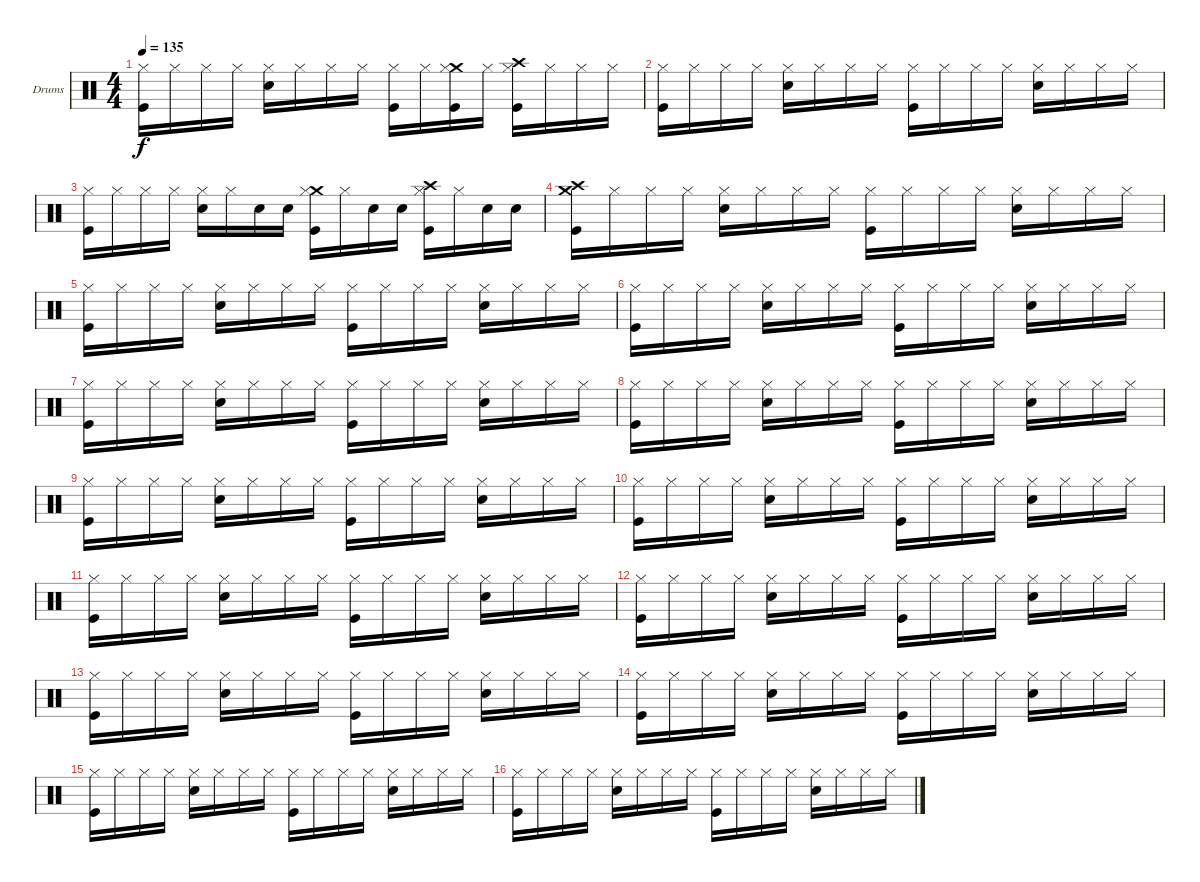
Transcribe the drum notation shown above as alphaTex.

\bracketExtendMode groupsimilarinstruments
\firstSystemTrackNameOrientation horizontal
\otherSystemsTrackNameOrientation horizontal
\track ("Ударные" "Drums") {instrument percussion}
\staff {score}
\articulation defaults
\ts (4 4)
\tempo 135
\clef neutral
\ks c
("Hi-Hat (closed)" "Kick (hit)").16{dy f} "Hi-Hat (closed)".16 "Hi-Hat (closed)".16 "Hi-Hat (closed)".16 ("Hi-Hat (closed)" "Snare (hit) 2").16 "Hi-Hat (closed)".16 "Hi-Hat (closed)".16 "Hi-Hat (closed)".16 ("Hi-Hat (closed)" "Kick (hit)").16 "Hi-Hat (closed)".16 ("Crash medium (hit)" "Hi-Hat (closed)" "Kick (hit)").16 "Hi-Hat (closed)".16 ("Crash high (hit)" "Hi-Hat (closed)" "Kick (hit)").16 "Hi-Hat (closed)".16 "Hi-Hat (closed)".16 "Hi-Hat (closed)".16 |
("Hi-Hat (closed)" "Kick (hit)").16 "Hi-Hat (closed)".16 "Hi-Hat (closed)".16 "Hi-Hat (closed)".16 ("Hi-Hat (closed)" "Snare (hit) 2").16 "Hi-Hat (closed)".16 "Hi-Hat (closed)".16 "Hi-Hat (closed)".16 ("Hi-Hat (closed)" "Kick (hit)").16 "Hi-Hat (closed)".16 "Hi-Hat (closed)".16 "Hi-Hat (closed)".16 ("Hi-Hat (closed)" "Snare (hit) 2").16 "Hi-Hat (closed)".16 "Hi-Hat (closed)".16 "Hi-Hat (closed)".16 |
("Hi-Hat (closed)" "Kick (hit)").16 "Hi-Hat (closed)".16 "Hi-Hat (closed)".16 "Hi-Hat (closed)".16 ("Hi-Hat (closed)" "Snare (hit) 2").16 "Hi-Hat (closed)".16 "Snare (hit) 2".16 "Snare (hit) 2".16 ("Crash medium (hit)" "Hi-Hat (closed)" "Kick (hit)").16 "Hi-Hat (closed)".16 "Snare (hit) 2".16 "Snare (hit) 2".16 ("Crash high (hit)" "Hi-Hat (closed)" "Kick (hit)").16 "Hi-Hat (closed)".16 "Snare (hit) 2".16 "Snare (hit) 2".16 |
("Crash high (hit)" "Crash medium (hit)" "Kick (hit)").16 "Hi-Hat (closed)".16 "Hi-Hat (closed)".16 "Hi-Hat (closed)".16 ("Hi-Hat (closed)" "Snare (hit) 2").16 "Hi-Hat (closed)".16 "Hi-Hat (closed)".16 "Hi-Hat (closed)".16 ("Hi-Hat (closed)" "Kick (hit)").16 "Hi-Hat (closed)".16 "Hi-Hat (closed)".16 "Hi-Hat (closed)".16 ("Hi-Hat (closed)" "Snare (hit) 2").16 "Hi-Hat (closed)".16 "Hi-Hat (closed)".16 "Hi-Hat (closed)".16 |
("Hi-Hat (closed)" "Kick (hit)").16 "Hi-Hat (closed)".16 "Hi-Hat (closed)".16 "Hi-Hat (closed)".16 ("Hi-Hat (closed)" "Snare (hit) 2").16 "Hi-Hat (closed)".16 "Hi-Hat (closed)".16 "Hi-Hat (closed)".16 ("Hi-Hat (closed)" "Kick (hit)").16 "Hi-Hat (closed)".16 "Hi-Hat (closed)".16 "Hi-Hat (closed)".16 ("Hi-Hat (closed)" "Snare (hit) 2").16 "Hi-Hat (closed)".16 "Hi-Hat (closed)".16 "Hi-Hat (closed)".16 |
("Hi-Hat (closed)" "Kick (hit)").16 "Hi-Hat (closed)".16 "Hi-Hat (closed)".16 "Hi-Hat (closed)".16 ("Hi-Hat (closed)" "Snare (hit) 2").16 "Hi-Hat (closed)".16 "Hi-Hat (closed)".16 "Hi-Hat (closed)".16 ("Hi-Hat (closed)" "Kick (hit)").16 "Hi-Hat (closed)".16 "Hi-Hat (closed)".16 "Hi-Hat (closed)".16 ("Hi-Hat (closed)" "Snare (hit) 2").16 "Hi-Hat (closed)".16 "Hi-Hat (closed)".16 "Hi-Hat (closed)".16 |
("Hi-Hat (closed)" "Kick (hit)").16 "Hi-Hat (closed)".16 "Hi-Hat (closed)".16 "Hi-Hat (closed)".16 ("Hi-Hat (closed)" "Snare (hit) 2").16 "Hi-Hat (closed)".16 "Hi-Hat (closed)".16 "Hi-Hat (closed)".16 ("Hi-Hat (closed)" "Kick (hit)").16 "Hi-Hat (closed)".16 "Hi-Hat (closed)".16 "Hi-Hat (closed)".16 ("Hi-Hat (closed)" "Snare (hit) 2").16 "Hi-Hat (closed)".16 "Hi-Hat (closed)".16 "Hi-Hat (closed)".16 |
("Hi-Hat (closed)" "Kick (hit)").16 "Hi-Hat (closed)".16 "Hi-Hat (closed)".16 "Hi-Hat (closed)".16 ("Hi-Hat (closed)" "Snare (hit) 2").16 "Hi-Hat (closed)".16 "Hi-Hat (closed)".16 "Hi-Hat (closed)".16 ("Hi-Hat (closed)" "Kick (hit)").16 "Hi-Hat (closed)".16 "Hi-Hat (closed)".16 "Hi-Hat (closed)".16 ("Hi-Hat (closed)" "Snare (hit) 2").16 "Hi-Hat (closed)".16 "Hi-Hat (closed)".16 "Hi-Hat (closed)".16 |
("Hi-Hat (closed)" "Kick (hit)").16 "Hi-Hat (closed)".16 "Hi-Hat (closed)".16 "Hi-Hat (closed)".16 ("Hi-Hat (closed)" "Snare (hit) 2").16 "Hi-Hat (closed)".16 "Hi-Hat (closed)".16 "Hi-Hat (closed)".16 ("Hi-Hat (closed)" "Kick (hit)").16 "Hi-Hat (closed)".16 "Hi-Hat (closed)".16 "Hi-Hat (closed)".16 ("Hi-Hat (closed)" "Snare (hit) 2").16 "Hi-Hat (closed)".16 "Hi-Hat (closed)".16 "Hi-Hat (closed)".16 |
("Hi-Hat (closed)" "Kick (hit)").16 "Hi-Hat (closed)".16 "Hi-Hat (closed)".16 "Hi-Hat (closed)".16 ("Hi-Hat (closed)" "Snare (hit) 2").16 "Hi-Hat (closed)".16 "Hi-Hat (closed)".16 "Hi-Hat (closed)".16 ("Hi-Hat (closed)" "Kick (hit)").16 "Hi-Hat (closed)".16 "Hi-Hat (closed)".16 "Hi-Hat (closed)".16 ("Hi-Hat (closed)" "Snare (hit) 2").16 "Hi-Hat (closed)".16 "Hi-Hat (closed)".16 "Hi-Hat (closed)".16 |
("Hi-Hat (closed)" "Kick (hit)").16 "Hi-Hat (closed)".16 "Hi-Hat (closed)".16 "Hi-Hat (closed)".16 ("Hi-Hat (closed)" "Snare (hit) 2").16 "Hi-Hat (closed)".16 "Hi-Hat (closed)".16 "Hi-Hat (closed)".16 ("Hi-Hat (closed)" "Kick (hit)").16 "Hi-Hat (closed)".16 "Hi-Hat (closed)".16 "Hi-Hat (closed)".16 ("Hi-Hat (closed)" "Snare (hit) 2").16 "Hi-Hat (closed)".16 "Hi-Hat (closed)".16 "Hi-Hat (closed)".16 |
("Hi-Hat (closed)" "Kick (hit)").16 "Hi-Hat (closed)".16 "Hi-Hat (closed)".16 "Hi-Hat (closed)".16 ("Hi-Hat (closed)" "Snare (hit) 2").16 "Hi-Hat (closed)".16 "Hi-Hat (closed)".16 "Hi-Hat (closed)".16 ("Hi-Hat (closed)" "Kick (hit)").16 "Hi-Hat (closed)".16 "Hi-Hat (closed)".16 "Hi-Hat (closed)".16 ("Hi-Hat (closed)" "Snare (hit) 2").16 "Hi-Hat (closed)".16 "Hi-Hat (closed)".16 "Hi-Hat (closed)".16 |
("Hi-Hat (closed)" "Kick (hit)").16 "Hi-Hat (closed)".16 "Hi-Hat (closed)".16 "Hi-Hat (closed)".16 ("Hi-Hat (closed)" "Snare (hit) 2").16 "Hi-Hat (closed)".16 "Hi-Hat (closed)".16 "Hi-Hat (closed)".16 ("Hi-Hat (closed)" "Kick (hit)").16 "Hi-Hat (closed)".16 "Hi-Hat (closed)".16 "Hi-Hat (closed)".16 ("Hi-Hat (closed)" "Snare (hit) 2").16 "Hi-Hat (closed)".16 "Hi-Hat (closed)".16 "Hi-Hat (closed)".16 |
("Hi-Hat (closed)" "Kick (hit)").16 "Hi-Hat (closed)".16 "Hi-Hat (closed)".16 "Hi-Hat (closed)".16 ("Hi-Hat (closed)" "Snare (hit) 2").16 "Hi-Hat (closed)".16 "Hi-Hat (closed)".16 "Hi-Hat (closed)".16 ("Hi-Hat (closed)" "Kick (hit)").16 "Hi-Hat (closed)".16 "Hi-Hat (closed)".16 "Hi-Hat (closed)".16 ("Hi-Hat (closed)" "Snare (hit) 2").16 "Hi-Hat (closed)".16 "Hi-Hat (closed)".16 "Hi-Hat (closed)".16 |
("Hi-Hat (closed)" "Kick (hit)").16 "Hi-Hat (closed)".16 "Hi-Hat (closed)".16 "Hi-Hat (closed)".16 ("Hi-Hat (closed)" "Snare (hit) 2").16 "Hi-Hat (closed)".16 "Hi-Hat (closed)".16 "Hi-Hat (closed)".16 ("Hi-Hat (closed)" "Kick (hit)").16 "Hi-Hat (closed)".16 "Hi-Hat (closed)".16 "Hi-Hat (closed)".16 ("Hi-Hat (closed)" "Snare (hit) 2").16 "Hi-Hat (closed)".16 "Hi-Hat (closed)".16 "Hi-Hat (closed)".16 |
("Hi-Hat (closed)" "Kick (hit)").16 "Hi-Hat (closed)".16 "Hi-Hat (closed)".16 "Hi-Hat (closed)".16 ("Hi-Hat (closed)" "Snare (hit) 2").16 "Hi-Hat (closed)".16 "Hi-Hat (closed)".16 "Hi-Hat (closed)".16 ("Hi-Hat (closed)" "Kick (hit)").16 "Hi-Hat (closed)".16 "Hi-Hat (closed)".16 "Hi-Hat (closed)".16 ("Hi-Hat (closed)" "Snare (hit) 2").16 "Hi-Hat (closed)".16 "Hi-Hat (closed)".16 "Hi-Hat (closed)".16
